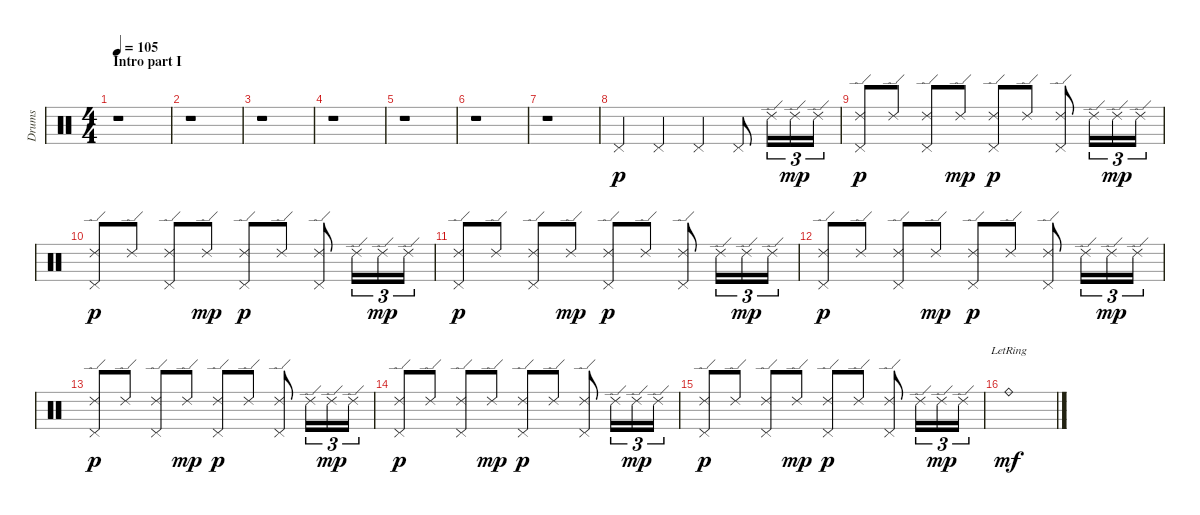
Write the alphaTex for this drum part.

\track ("Drums" "Drums") {instrument percussion}
\staff {score}
\articulation defaults
\ts (4 4)
\section ("" "Intro part I ")
\tempo 105
\clef neutral
\ks c
r.1{dy p} |
r.1 |
r.1 |
r.1 |
r.1 |
r.1 |
r.1 |
"Pedal Hi-Hat (hit)".4 "Pedal Hi-Hat (hit)".4 "Pedal Hi-Hat (hit)".4 "Pedal Hi-Hat (hit)".8 "Ride (edge) 2".16{tu (3 2)} "Ride (edge) 2".16{tu (3 2) dy mp} "Ride (edge) 2".16{tu (3 2)} |
("Ride (edge) 2" "Pedal Hi-Hat (hit)").8{dy p} "Ride (edge) 2".8 ("Ride (edge) 2" "Pedal Hi-Hat (hit)").8 "Ride (edge) 2".8{dy mp} ("Ride (edge) 2" "Pedal Hi-Hat (hit)").8{dy p} "Ride (edge) 2".8 ("Ride (edge) 2" "Pedal Hi-Hat (hit)").8 "Ride (edge) 2".16{tu (3 2)} "Ride (edge) 2".16{tu (3 2) dy mp} "Ride (edge) 2".16{tu (3 2)} |
("Ride (edge) 2" "Pedal Hi-Hat (hit)").8{dy p} "Ride (edge) 2".8 ("Ride (edge) 2" "Pedal Hi-Hat (hit)").8 "Ride (edge) 2".8{dy mp} ("Ride (edge) 2" "Pedal Hi-Hat (hit)").8{dy p} "Ride (edge) 2".8 ("Ride (edge) 2" "Pedal Hi-Hat (hit)").8 "Ride (edge) 2".16{tu (3 2)} "Ride (edge) 2".16{tu (3 2) dy mp} "Ride (edge) 2".16{tu (3 2)} |
("Ride (edge) 2" "Pedal Hi-Hat (hit)").8{dy p} "Ride (edge) 2".8 ("Ride (edge) 2" "Pedal Hi-Hat (hit)").8 "Ride (edge) 2".8{dy mp} ("Ride (edge) 2" "Pedal Hi-Hat (hit)").8{dy p} "Ride (edge) 2".8 ("Ride (edge) 2" "Pedal Hi-Hat (hit)").8 "Ride (edge) 2".16{tu (3 2)} "Ride (edge) 2".16{tu (3 2) dy mp} "Ride (edge) 2".16{tu (3 2)} |
("Ride (edge) 2" "Pedal Hi-Hat (hit)").8{dy p} "Ride (edge) 2".8 ("Ride (edge) 2" "Pedal Hi-Hat (hit)").8 "Ride (edge) 2".8{dy mp} ("Ride (edge) 2" "Pedal Hi-Hat (hit)").8{dy p} "Ride (edge) 2".8 ("Ride (edge) 2" "Pedal Hi-Hat (hit)").8 "Ride (edge) 2".16{tu (3 2)} "Ride (edge) 2".16{tu (3 2) dy mp} "Ride (edge) 2".16{tu (3 2)} |
("Ride (edge) 2" "Pedal Hi-Hat (hit)").8{dy p} "Ride (edge) 2".8 ("Ride (edge) 2" "Pedal Hi-Hat (hit)").8 "Ride (edge) 2".8{dy mp} ("Ride (edge) 2" "Pedal Hi-Hat (hit)").8{dy p} "Ride (edge) 2".8 ("Ride (edge) 2" "Pedal Hi-Hat (hit)").8 "Ride (edge) 2".16{tu (3 2)} "Ride (edge) 2".16{tu (3 2) dy mp} "Ride (edge) 2".16{tu (3 2)} |
("Ride (edge) 2" "Pedal Hi-Hat (hit)").8{dy p} "Ride (edge) 2".8 ("Ride (edge) 2" "Pedal Hi-Hat (hit)").8 "Ride (edge) 2".8{dy mp} ("Ride (edge) 2" "Pedal Hi-Hat (hit)").8{dy p} "Ride (edge) 2".8 ("Ride (edge) 2" "Pedal Hi-Hat (hit)").8 "Ride (edge) 2".16{tu (3 2)} "Ride (edge) 2".16{tu (3 2) dy mp} "Ride (edge) 2".16{tu (3 2)} |
("Ride (edge) 2" "Pedal Hi-Hat (hit)").8{dy p} "Ride (edge) 2".8 ("Ride (edge) 2" "Pedal Hi-Hat (hit)").8 "Ride (edge) 2".8{dy mp} ("Ride (edge) 2" "Pedal Hi-Hat (hit)").8{dy p} "Ride (edge) 2".8 ("Ride (edge) 2" "Pedal Hi-Hat (hit)").8 "Ride (edge) 2".16{tu (3 2)} "Ride (edge) 2".16{tu (3 2) dy mp} "Ride (edge) 2".16{tu (3 2)} |
"Ride (bell)"{lr}.1{dy mf}
